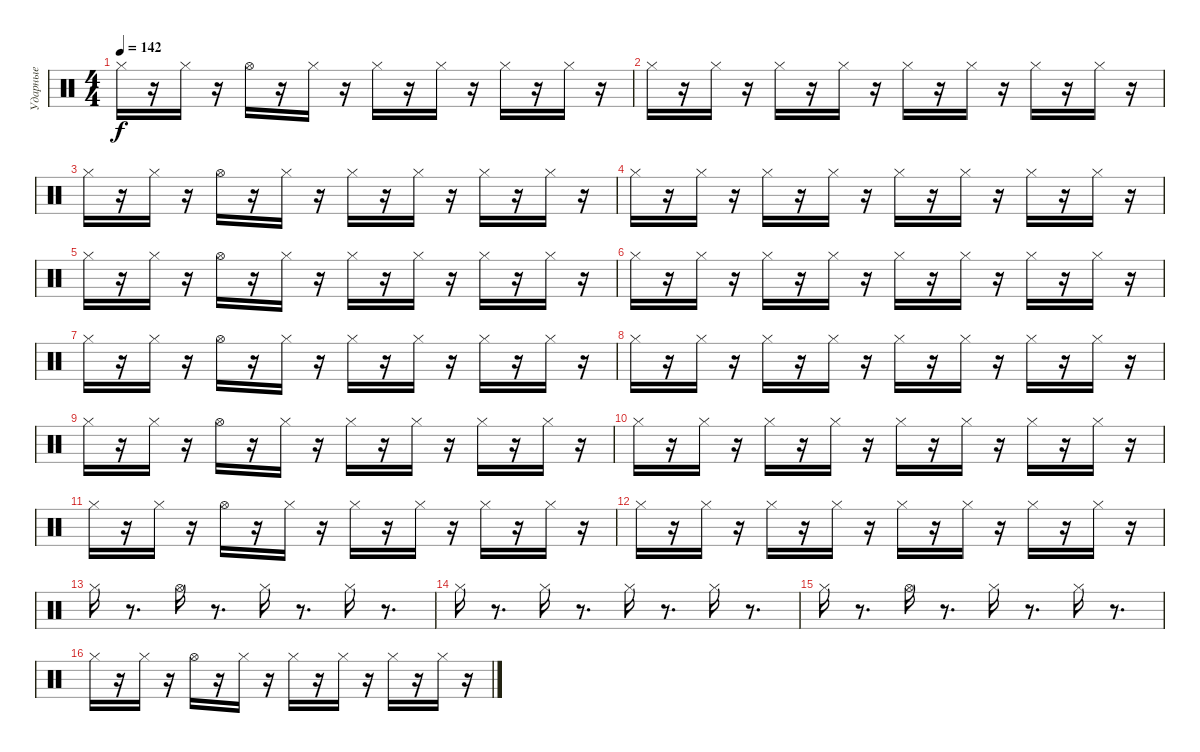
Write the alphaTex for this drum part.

\track ("Ударные" "Ударные") {instrument percussion}
\staff {score}
\articulation defaults
\ts (4 4)
\tempo 142
\clef neutral
\ks c "Hi-Hat (closed)".16{dy f}
r.16 "Hi-Hat (closed)".16 r.16 "Hi-Hat (open)".16 r.16 "Hi-Hat (closed)".16 r.16 "Hi-Hat (closed)".16 r.16 "Hi-Hat (closed)".16 r.16 "Hi-Hat (closed)".16 r.16 "Hi-Hat (closed)".16 r.16 |
"Hi-Hat (closed)".16 r.16 "Hi-Hat (closed)".16 r.16 "Hi-Hat (closed)".16 r.16 "Hi-Hat (closed)".16 r.16 "Hi-Hat (closed)".16 r.16 "Hi-Hat (closed)".16 r.16 "Hi-Hat (closed)".16 r.16 "Hi-Hat (closed)".16 r.16 |
"Hi-Hat (closed)".16 r.16 "Hi-Hat (closed)".16 r.16 "Hi-Hat (open)".16 r.16 "Hi-Hat (closed)".16 r.16 "Hi-Hat (closed)".16 r.16 "Hi-Hat (closed)".16 r.16 "Hi-Hat (closed)".16 r.16 "Hi-Hat (closed)".16 r.16 |
"Hi-Hat (closed)".16 r.16 "Hi-Hat (closed)".16 r.16 "Hi-Hat (closed)".16 r.16 "Hi-Hat (closed)".16 r.16 "Hi-Hat (closed)".16 r.16 "Hi-Hat (closed)".16 r.16 "Hi-Hat (closed)".16 r.16 "Hi-Hat (closed)".16 r.16 |
"Hi-Hat (closed)".16 r.16 "Hi-Hat (closed)".16 r.16 "Hi-Hat (open)".16 r.16 "Hi-Hat (closed)".16 r.16 "Hi-Hat (closed)".16 r.16 "Hi-Hat (closed)".16 r.16 "Hi-Hat (closed)".16 r.16 "Hi-Hat (closed)".16 r.16 |
"Hi-Hat (closed)".16 r.16 "Hi-Hat (closed)".16 r.16 "Hi-Hat (closed)".16 r.16 "Hi-Hat (closed)".16 r.16 "Hi-Hat (closed)".16 r.16 "Hi-Hat (closed)".16 r.16 "Hi-Hat (closed)".16 r.16 "Hi-Hat (closed)".16 r.16 |
"Hi-Hat (closed)".16 r.16 "Hi-Hat (closed)".16 r.16 "Hi-Hat (open)".16 r.16 "Hi-Hat (closed)".16 r.16 "Hi-Hat (closed)".16 r.16 "Hi-Hat (closed)".16 r.16 "Hi-Hat (closed)".16 r.16 "Hi-Hat (closed)".16 r.16 |
"Hi-Hat (closed)".16 r.16 "Hi-Hat (closed)".16 r.16 "Hi-Hat (closed)".16 r.16 "Hi-Hat (closed)".16 r.16 "Hi-Hat (closed)".16 r.16 "Hi-Hat (closed)".16 r.16 "Hi-Hat (closed)".16 r.16 "Hi-Hat (closed)".16 r.16 |
"Hi-Hat (closed)".16 r.16 "Hi-Hat (closed)".16 r.16 "Hi-Hat (open)".16 r.16 "Hi-Hat (closed)".16 r.16 "Hi-Hat (closed)".16 r.16 "Hi-Hat (closed)".16 r.16 "Hi-Hat (closed)".16 r.16 "Hi-Hat (closed)".16 r.16 |
"Hi-Hat (closed)".16 r.16 "Hi-Hat (closed)".16 r.16 "Hi-Hat (closed)".16 r.16 "Hi-Hat (closed)".16 r.16 "Hi-Hat (closed)".16 r.16 "Hi-Hat (closed)".16 r.16 "Hi-Hat (closed)".16 r.16 "Hi-Hat (closed)".16 r.16 |
"Hi-Hat (closed)".16 r.16 "Hi-Hat (closed)".16 r.16 "Hi-Hat (open)".16 r.16 "Hi-Hat (closed)".16 r.16 "Hi-Hat (closed)".16 r.16 "Hi-Hat (closed)".16 r.16 "Hi-Hat (closed)".16 r.16 "Hi-Hat (closed)".16 r.16 |
"Hi-Hat (closed)".16 r.16 "Hi-Hat (closed)".16 r.16 "Hi-Hat (closed)".16 r.16 "Hi-Hat (closed)".16 r.16 "Hi-Hat (closed)".16 r.16 "Hi-Hat (closed)".16 r.16 "Hi-Hat (closed)".16 r.16 "Hi-Hat (closed)".16 r.16 |
"Hi-Hat (closed)".16 r.8{d} "Hi-Hat (open)".16 r.8{d} "Hi-Hat (closed)".16 r.8{d} "Hi-Hat (closed)".16 r.8{d} |
"Hi-Hat (closed)".16 r.8{d} "Hi-Hat (closed)".16 r.8{d} "Hi-Hat (closed)".16 r.8{d} "Hi-Hat (closed)".16 r.8{d} |
"Hi-Hat (closed)".16 r.8{d} "Hi-Hat (open)".16 r.8{d} "Hi-Hat (closed)".16 r.8{d} "Hi-Hat (closed)".16 r.8{d} |
"Hi-Hat (closed)".16 r.16 "Hi-Hat (closed)".16 r.16 "Hi-Hat (open)".16 r.16 "Hi-Hat (closed)".16 r.16 "Hi-Hat (closed)".16 r.16 "Hi-Hat (closed)".16 r.16 "Hi-Hat (closed)".16 r.16 "Hi-Hat (closed)".16 r.16
